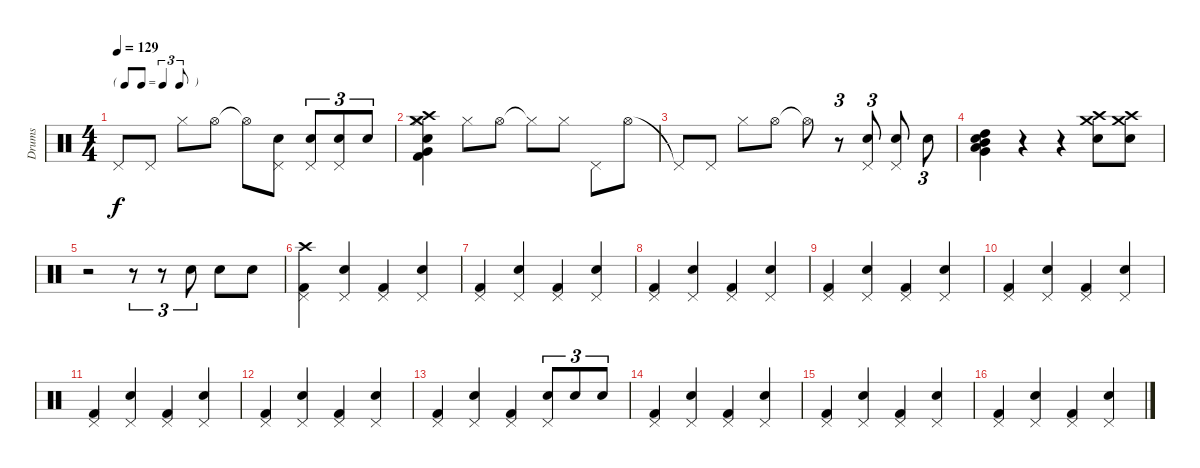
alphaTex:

\track ("Drums" "Drums") {instrument percussion}
\staff {score}
\articulation defaults
\ts (4 4)
\tf triplet8th
\tempo 129
\clef neutral
\ks c "Pedal Hi-Hat (hit)"{t}.8{dy f} "Pedal Hi-Hat (hit)".8 "Hi-Hat (closed)".8 "Hi-Hat (open)".8 "Hi-Hat (open)"{t}.8
("Pedal Hi-Hat (hit)" "Electric Snare (hit)").8 ("Pedal Hi-Hat (hit)" "Electric Snare (hit)").8{tu (3 2)} ("Pedal Hi-Hat (hit)" "Electric Snare (hit)").8{tu (3 2)} "Electric Snare (hit)".8{tu (3 2)} |
("Very Low Tom (hit)" "Kick (hit) 2" "Crash medium (hit)" "Hi-Hat (closed)" "Crash high (hit)" "Electric Snare (hit)").4 "Hi-Hat (closed)".8 "Hi-Hat (open)".8 "Hi-Hat (closed)"{t}.8 "Hi-Hat (closed)".8 "Pedal Hi-Hat (hit)".8 "Hi-Hat (open)".8 |
"Pedal Hi-Hat (hit)"{t}.8 "Pedal Hi-Hat (hit)".8 "Hi-Hat (closed)".8 "Hi-Hat (open)".8 "Hi-Hat (open)"{t}.8 r.8{tu (3 2)} ("Pedal Hi-Hat (hit)" "Electric Snare (hit)").8{tu (3 2)} ("Pedal Hi-Hat (hit)" "Electric Snare (hit)").8 "Electric Snare (hit)".8{tu (3 2)} |
("High Tom (hit)" "Low Tom (hit)" "Very Low Tom (hit)" "Electric Snare (hit)" "Mid Tom (hit)").4 r.4 r.4 ("Crash high (hit)" "Crash medium (hit)" "Electric Snare (hit)").8 ("Crash high (hit)" "Crash medium (hit)" "Electric Snare (hit)").8 |
r.2 r.8{tu (3 2)} r.8{tu (3 2)} "Electric Snare (hit)".8{tu (3 2)} "Electric Snare (hit)".8 "Electric Snare (hit)".8 |
("Crash high (hit)" "Pedal Hi-Hat (hit)" "Kick (hit) 2").4 ("Pedal Hi-Hat (hit)" "Electric Snare (hit)").4 ("Pedal Hi-Hat (hit)" "Kick (hit) 2").4 ("Pedal Hi-Hat (hit)" "Electric Snare (hit)").4 |
("Pedal Hi-Hat (hit)" "Kick (hit) 2").4 ("Pedal Hi-Hat (hit)" "Electric Snare (hit)").4 ("Pedal Hi-Hat (hit)" "Kick (hit) 2").4 ("Pedal Hi-Hat (hit)" "Electric Snare (hit)").4 |
("Pedal Hi-Hat (hit)" "Kick (hit) 2").4 ("Pedal Hi-Hat (hit)" "Electric Snare (hit)").4 ("Pedal Hi-Hat (hit)" "Kick (hit) 2").4 ("Pedal Hi-Hat (hit)" "Electric Snare (hit)").4 |
("Pedal Hi-Hat (hit)" "Kick (hit) 2").4 ("Pedal Hi-Hat (hit)" "Electric Snare (hit)").4 ("Pedal Hi-Hat (hit)" "Kick (hit) 2").4 ("Pedal Hi-Hat (hit)" "Electric Snare (hit)").4 |
("Pedal Hi-Hat (hit)" "Kick (hit) 2").4 ("Pedal Hi-Hat (hit)" "Electric Snare (hit)").4 ("Pedal Hi-Hat (hit)" "Kick (hit) 2").4 ("Pedal Hi-Hat (hit)" "Electric Snare (hit)").4 |
("Pedal Hi-Hat (hit)" "Kick (hit) 2").4 ("Pedal Hi-Hat (hit)" "Electric Snare (hit)").4 ("Pedal Hi-Hat (hit)" "Kick (hit) 2").4 ("Pedal Hi-Hat (hit)" "Electric Snare (hit)").4 |
("Pedal Hi-Hat (hit)" "Kick (hit) 2").4 ("Pedal Hi-Hat (hit)" "Electric Snare (hit)").4 ("Pedal Hi-Hat (hit)" "Kick (hit) 2").4 ("Pedal Hi-Hat (hit)" "Electric Snare (hit)").4 |
("Pedal Hi-Hat (hit)" "Kick (hit) 2").4 ("Pedal Hi-Hat (hit)" "Electric Snare (hit)").4 ("Pedal Hi-Hat (hit)" "Kick (hit) 2").4 ("Pedal Hi-Hat (hit)" "Electric Snare (hit)").8{tu (3 2)} "Electric Snare (hit)".8{tu (3 2)} "Electric Snare (hit)".8{tu (3 2)} |
("Pedal Hi-Hat (hit)" "Kick (hit) 2").4 ("Pedal Hi-Hat (hit)" "Electric Snare (hit)").4 ("Pedal Hi-Hat (hit)" "Kick (hit) 2").4 ("Pedal Hi-Hat (hit)" "Electric Snare (hit)").4 |
("Pedal Hi-Hat (hit)" "Kick (hit) 2").4 ("Pedal Hi-Hat (hit)" "Electric Snare (hit)").4 ("Pedal Hi-Hat (hit)" "Kick (hit) 2").4 ("Pedal Hi-Hat (hit)" "Electric Snare (hit)").4 |
("Pedal Hi-Hat (hit)" "Kick (hit) 2").4 ("Pedal Hi-Hat (hit)" "Electric Snare (hit)").4 ("Pedal Hi-Hat (hit)" "Kick (hit) 2").4 ("Pedal Hi-Hat (hit)" "Electric Snare (hit)").4
